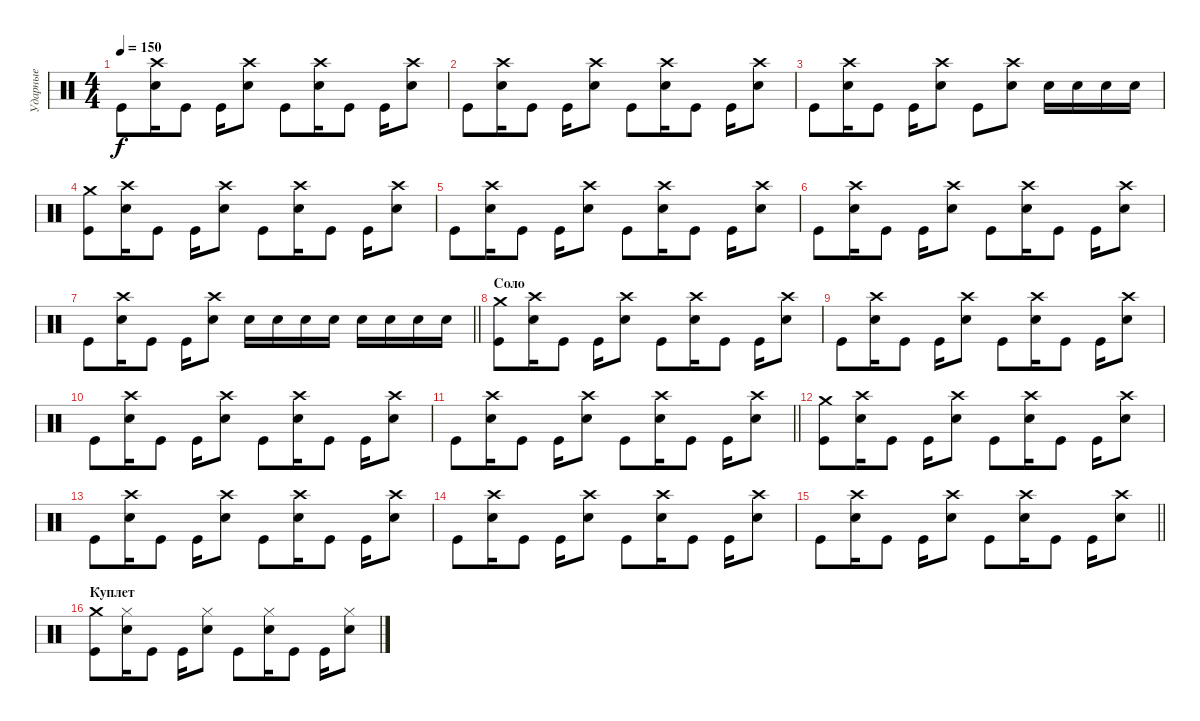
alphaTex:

\track ("Ударные" "Ударные") {instrument percussion}
\staff {score}
\articulation defaults
\ts (4 4)
\tempo 150
\clef neutral
\ks c "Kick (hit)".8{dy f}
("Crash high (hit)" "Electric Snare (hit)").16 "Kick (hit)".8 "Kick (hit)".16 ("Crash high (hit)" "Electric Snare (hit)").8 "Kick (hit)".8 ("Crash high (hit)" "Electric Snare (hit)").16 "Kick (hit)".8 "Kick (hit)".16 ("Crash high (hit)" "Electric Snare (hit)").8 |
"Kick (hit)".8 ("Crash high (hit)" "Electric Snare (hit)").16 "Kick (hit)".8 "Kick (hit)".16 ("Crash high (hit)" "Electric Snare (hit)").8 "Kick (hit)".8 ("Crash high (hit)" "Electric Snare (hit)").16 "Kick (hit)".8 "Kick (hit)".16 ("Crash high (hit)" "Electric Snare (hit)").8 |
"Kick (hit)".8 ("Crash high (hit)" "Electric Snare (hit)").16 "Kick (hit)".8 "Kick (hit)".16 ("Crash high (hit)" "Electric Snare (hit)").8 "Kick (hit)".8 ("Crash high (hit)" "Electric Snare (hit)").8 "Electric Snare (hit)".16 "Electric Snare (hit)".16 "Electric Snare (hit)".16 "Electric Snare (hit)".16 |
("Crash medium (hit)" "Kick (hit)").8 ("Crash high (hit)" "Electric Snare (hit)").16 "Kick (hit)".8 "Kick (hit)".16 ("Crash high (hit)" "Electric Snare (hit)").8 "Kick (hit)".8 ("Crash high (hit)" "Electric Snare (hit)").16 "Kick (hit)".8 "Kick (hit)".16 ("Crash high (hit)" "Electric Snare (hit)").8 |
"Kick (hit)".8 ("Crash high (hit)" "Electric Snare (hit)").16 "Kick (hit)".8 "Kick (hit)".16 ("Crash high (hit)" "Electric Snare (hit)").8 "Kick (hit)".8 ("Crash high (hit)" "Electric Snare (hit)").16 "Kick (hit)".8 "Kick (hit)".16 ("Crash high (hit)" "Electric Snare (hit)").8 |
"Kick (hit)".8 ("Crash high (hit)" "Electric Snare (hit)").16 "Kick (hit)".8 "Kick (hit)".16 ("Crash high (hit)" "Electric Snare (hit)").8 "Kick (hit)".8 ("Crash high (hit)" "Electric Snare (hit)").16 "Kick (hit)".8 "Kick (hit)".16 ("Crash high (hit)" "Electric Snare (hit)").8 |
\barLineRight lightlight "Kick (hit)".8
("Crash high (hit)" "Electric Snare (hit)").16 "Kick (hit)".8 "Kick (hit)".16 ("Crash high (hit)" "Electric Snare (hit)").8 "Electric Snare (hit)".16 "Electric Snare (hit)".16 "Electric Snare (hit)".16 "Electric Snare (hit)".16 "Electric Snare (hit)".16 "Electric Snare (hit)".16 "Electric Snare (hit)".16 "Electric Snare (hit)".16 |
\section ("" "Соло")
("Crash medium (hit)" "Kick (hit)").8 ("Crash high (hit)" "Electric Snare (hit)").16 "Kick (hit)".8 "Kick (hit)".16 ("Crash high (hit)" "Electric Snare (hit)").8 "Kick (hit)".8 ("Crash high (hit)" "Electric Snare (hit)").16 "Kick (hit)".8 "Kick (hit)".16 ("Crash high (hit)" "Electric Snare (hit)").8 |
"Kick (hit)".8 ("Crash high (hit)" "Electric Snare (hit)").16 "Kick (hit)".8 "Kick (hit)".16 ("Crash high (hit)" "Electric Snare (hit)").8 "Kick (hit)".8 ("Crash high (hit)" "Electric Snare (hit)").16 "Kick (hit)".8 "Kick (hit)".16 ("Crash high (hit)" "Electric Snare (hit)").8 |
"Kick (hit)".8 ("Crash high (hit)" "Electric Snare (hit)").16 "Kick (hit)".8 "Kick (hit)".16 ("Crash high (hit)" "Electric Snare (hit)").8 "Kick (hit)".8 ("Crash high (hit)" "Electric Snare (hit)").16 "Kick (hit)".8 "Kick (hit)".16 ("Crash high (hit)" "Electric Snare (hit)").8 |
\barLineRight lightlight "Kick (hit)".8
("Crash high (hit)" "Electric Snare (hit)").16 "Kick (hit)".8 "Kick (hit)".16 ("Crash high (hit)" "Electric Snare (hit)").8 "Kick (hit)".8 ("Crash high (hit)" "Electric Snare (hit)").16 "Kick (hit)".8 "Kick (hit)".16 ("Crash high (hit)" "Electric Snare (hit)").8 |
("Crash medium (hit)" "Kick (hit)").8 ("Crash high (hit)" "Electric Snare (hit)").16 "Kick (hit)".8 "Kick (hit)".16 ("Crash high (hit)" "Electric Snare (hit)").8 "Kick (hit)".8 ("Crash high (hit)" "Electric Snare (hit)").16 "Kick (hit)".8 "Kick (hit)".16 ("Crash high (hit)" "Electric Snare (hit)").8 |
"Kick (hit)".8 ("Crash high (hit)" "Electric Snare (hit)").16 "Kick (hit)".8 "Kick (hit)".16 ("Crash high (hit)" "Electric Snare (hit)").8 "Kick (hit)".8 ("Crash high (hit)" "Electric Snare (hit)").16 "Kick (hit)".8 "Kick (hit)".16 ("Crash high (hit)" "Electric Snare (hit)").8 |
"Kick (hit)".8 ("Crash high (hit)" "Electric Snare (hit)").16 "Kick (hit)".8 "Kick (hit)".16 ("Crash high (hit)" "Electric Snare (hit)").8 "Kick (hit)".8 ("Crash high (hit)" "Electric Snare (hit)").16 "Kick (hit)".8 "Kick (hit)".16 ("Crash high (hit)" "Electric Snare (hit)").8 |
\barLineRight lightlight "Kick (hit)".8
("Crash high (hit)" "Electric Snare (hit)").16 "Kick (hit)".8 "Kick (hit)".16 ("Crash high (hit)" "Electric Snare (hit)").8 "Kick (hit)".8 ("Crash high (hit)" "Electric Snare (hit)").16 "Kick (hit)".8 "Kick (hit)".16 ("Crash high (hit)" "Electric Snare (hit)").8 |
\section ("" "Куплет")
("Crash medium (hit)" "Kick (hit)").8 ("Hi-Hat (closed)" "Electric Snare (hit)").16 "Kick (hit)".8 "Kick (hit)".16 ("Hi-Hat (closed)" "Electric Snare (hit)").8 "Kick (hit)".8 ("Hi-Hat (closed)" "Electric Snare (hit)").16 "Kick (hit)".8 "Kick (hit)".16 ("Hi-Hat (closed)" "Electric Snare (hit)").8
